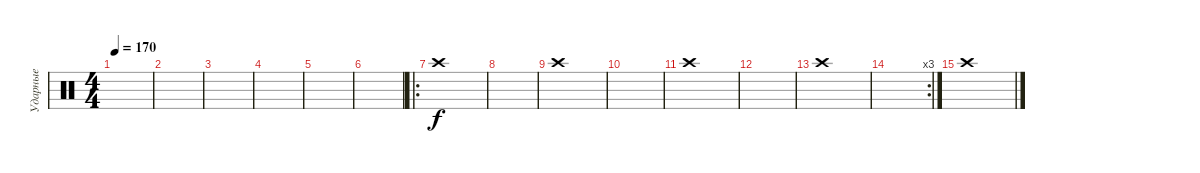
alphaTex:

\track ("Ударные" "Ударные") {instrument percussion}
\staff {score}
\articulation defaults
\ts (4 4)
\tempo 170
\clef neutral
\ks c
|
|
|
|
|
|
\ro "Crash high (hit)".1
|
|
"Crash high (hit)".1 |
|
"Crash high (hit)".1 |
|
"Crash high (hit)".1 |
\rc 3
|
"Crash high (hit)".1
